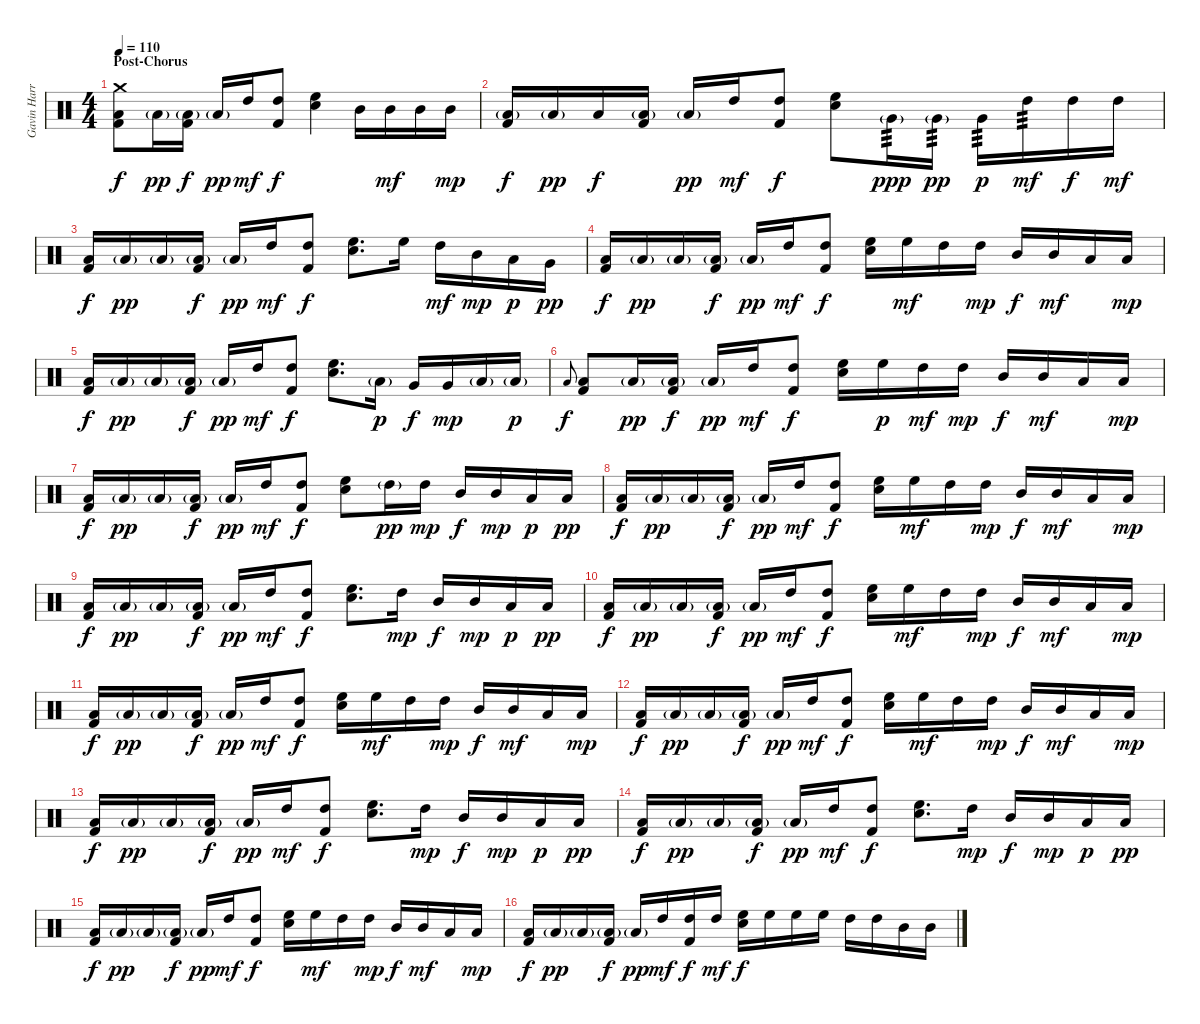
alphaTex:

\track ("Gavin Harrison - Drums" "Gavin Harr") {instrument percussion}
\staff {score}
\articulation defaults
\ts (4 4)
\section ("" "Post-Chorus")
\tempo 110
\clef neutral
\ks c
("Crash medium (hit)" "Low Floor Tom (hit)" "Kick (hit) 2").8{dy f} "Low Floor Tom (hit)"{g}.16{dy pp} ("Low Tom (hit)"{g} "Kick (hit) 2").16{dy f} "Low Tom (hit)"{g}.16{dy pp} "High Tom (hit)".16{dy mf} ("High Tom (hit)" "Kick (hit) 2").8{dy f} ("High Floor Tom (hit)" "Electric Snare (hit)").4 "Mid Tom (hit)".16 "Mid Tom (hit)".16{dy mf} "Mid Tom (hit)".16 "Mid Tom (hit)".16{dy mp} |
("Low Floor Tom (hit)"{g} "Kick (hit) 2").16{dy f} "Low Floor Tom (hit)"{g}.16{dy pp} "Low Floor Tom (hit)".16{dy f} ("Low Tom (hit)"{g} "Kick (hit) 2").16 "Low Tom (hit)"{g}.16{dy pp} "High Tom (hit)".16{dy mf} ("High Tom (hit)" "Kick (hit) 2").8{dy f} ("High Floor Tom (hit)" "Electric Snare (hit)").8 "Very Low Tom (hit)"{g}.16{tp 3 dy ppp} "Very Low Tom (hit)"{g}.16{tp 3 dy pp} "Very Low Tom (hit)".16{tp 3 dy p} "High Tom (hit)".16{tp 3 dy mf} "High Tom (hit)".16{dy f} "High Tom (hit)".16{dy mf} |
("Low Floor Tom (hit)" "Kick (hit) 2").16{dy f} "Low Floor Tom (hit)"{g}.16{dy pp} "Low Floor Tom (hit)"{g}.16 ("Low Tom (hit)"{g} "Kick (hit) 2").16{dy f} "Low Tom (hit)"{g}.16{dy pp} "High Tom (hit)".16{dy mf} ("High Tom (hit)" "Kick (hit) 2").8{dy f} ("High Floor Tom (hit)" "Electric Snare (hit)").8{d} "High Floor Tom (hit)".16 "High Tom (hit)".16{dy mf} "Mid Tom (hit)".16{dy mp} "Low Tom (hit)".16{dy p} "Very Low Tom (hit)".16{dy pp} |
("Low Floor Tom (hit)" "Kick (hit) 2").16{dy f} "Low Floor Tom (hit)"{g}.16{dy pp} "Low Floor Tom (hit)"{g}.16 ("Low Tom (hit)"{g} "Kick (hit) 2").16{dy f} "Low Tom (hit)"{g}.16{dy pp} "High Tom (hit)".16{dy mf} ("High Tom (hit)" "Kick (hit) 2").8{dy f} ("High Floor Tom (hit)" "Electric Snare (hit)").16 "High Floor Tom (hit)".16{dy mf} "High Tom (hit)".16 "High Tom (hit)".16{dy mp} "Mid Tom (hit)".16{dy f} "Mid Tom (hit)".16{dy mf} "Low Tom (hit)".16 "Low Tom (hit)".16{dy mp} |
("Low Floor Tom (hit)" "Kick (hit) 2").16{dy f} "Low Floor Tom (hit)"{g}.16{dy pp} "Low Floor Tom (hit)"{g}.16 ("Low Tom (hit)"{g} "Kick (hit) 2").16{dy f} "Low Tom (hit)"{g}.16{dy pp} "High Tom (hit)".16{dy mf} ("High Tom (hit)" "Kick (hit) 2").8{dy f} ("High Floor Tom (hit)" "Electric Snare (hit)").8{d} "Low Tom (hit)"{g}.16{dy p} "Very Low Tom (hit)".16{dy f} "Very Low Tom (hit)".16{dy mp} "Low Floor Tom (hit)"{g}.16 "Low Floor Tom (hit)"{g}.16{dy p} |
"Low Floor Tom (hit)".8{gr onbeat dy f} ("Low Floor Tom (hit)" "Kick (hit) 2").8 "Low Floor Tom (hit)"{g}.16{dy pp} ("Low Tom (hit)"{g} "Kick (hit) 2").16{dy f} "Low Tom (hit)"{g}.16{dy pp} "High Tom (hit)".16{dy mf} ("High Tom (hit)" "Kick (hit) 2").8{dy f} ("High Floor Tom (hit)" "Electric Snare (hit)").16 "High Floor Tom (hit)".16{dy p} "High Tom (hit)".16{dy mf} "High Tom (hit)".16{dy mp} "Mid Tom (hit)".16{dy f} "Mid Tom (hit)".16{dy mf} "Low Tom (hit)".16 "Low Tom (hit)".16{dy mp} |
("Low Floor Tom (hit)" "Kick (hit) 2").16{dy f} "Low Floor Tom (hit)"{g}.16{dy pp} "Low Floor Tom (hit)"{g}.16 ("Low Tom (hit)"{g} "Kick (hit) 2").16{dy f} "Low Tom (hit)"{g}.16{dy pp} "High Tom (hit)".16{dy mf} ("High Tom (hit)" "Kick (hit) 2").8{dy f} ("High Floor Tom (hit)" "Electric Snare (hit)").8 "High Tom (hit)"{g}.16{dy pp} "High Tom (hit)".16{dy mp} "Mid Tom (hit)".16{dy f} "Mid Tom (hit)".16{dy mp} "Low Tom (hit)".16{dy p} "Low Tom (hit)".16{dy pp} |
("Low Floor Tom (hit)" "Kick (hit) 2").16{dy f} "Low Floor Tom (hit)"{g}.16{dy pp} "Low Floor Tom (hit)"{g}.16 ("Low Tom (hit)"{g} "Kick (hit) 2").16{dy f} "Low Tom (hit)"{g}.16{dy pp} "High Tom (hit)".16{dy mf} ("High Tom (hit)" "Kick (hit) 2").8{dy f} ("High Floor Tom (hit)" "Electric Snare (hit)").16 "High Floor Tom (hit)".16{dy mf} "High Tom (hit)".16 "High Tom (hit)".16{dy mp} "Mid Tom (hit)".16{dy f} "Mid Tom (hit)".16{dy mf} "Low Tom (hit)".16 "Low Tom (hit)".16{dy mp} |
("Low Floor Tom (hit)" "Kick (hit) 2").16{dy f} "Low Floor Tom (hit)"{g}.16{dy pp} "Low Floor Tom (hit)"{g}.16 ("Low Tom (hit)"{g} "Kick (hit) 2").16{dy f} "Low Tom (hit)"{g}.16{dy pp} "High Tom (hit)".16{dy mf} ("High Tom (hit)" "Kick (hit) 2").8{dy f} ("High Floor Tom (hit)" "Electric Snare (hit)").8{d} "High Tom (hit)".16{dy mp} "Mid Tom (hit)".16{dy f} "Mid Tom (hit)".16{dy mp} "Low Tom (hit)".16{dy p} "Low Tom (hit)".16{dy pp} |
("Low Floor Tom (hit)" "Kick (hit) 2").16{dy f} "Low Floor Tom (hit)"{g}.16{dy pp} "Low Floor Tom (hit)"{g}.16 ("Low Tom (hit)"{g} "Kick (hit) 2").16{dy f} "Low Tom (hit)"{g}.16{dy pp} "High Tom (hit)".16{dy mf} ("High Tom (hit)" "Kick (hit) 2").8{dy f} ("High Floor Tom (hit)" "Electric Snare (hit)").16 "High Floor Tom (hit)".16{dy mf} "High Tom (hit)".16 "High Tom (hit)".16{dy mp} "Mid Tom (hit)".16{dy f} "Mid Tom (hit)".16{dy mf} "Low Tom (hit)".16 "Low Tom (hit)".16{dy mp} |
("Low Floor Tom (hit)" "Kick (hit) 2").16{dy f} "Low Floor Tom (hit)"{g}.16{dy pp} "Low Floor Tom (hit)"{g}.16 ("Low Tom (hit)"{g} "Kick (hit) 2").16{dy f} "Low Tom (hit)"{g}.16{dy pp} "High Tom (hit)".16{dy mf} ("High Tom (hit)" "Kick (hit) 2").8{dy f} ("High Floor Tom (hit)" "Electric Snare (hit)").16 "High Floor Tom (hit)".16{dy mf} "High Tom (hit)".16 "High Tom (hit)".16{dy mp} "Mid Tom (hit)".16{dy f} "Mid Tom (hit)".16{dy mf} "Low Tom (hit)".16 "Low Tom (hit)".16{dy mp} |
("Low Floor Tom (hit)" "Kick (hit) 2").16{dy f} "Low Floor Tom (hit)"{g}.16{dy pp} "Low Floor Tom (hit)"{g}.16 ("Low Tom (hit)"{g} "Kick (hit) 2").16{dy f} "Low Tom (hit)"{g}.16{dy pp} "High Tom (hit)".16{dy mf} ("High Tom (hit)" "Kick (hit) 2").8{dy f} ("High Floor Tom (hit)" "Electric Snare (hit)").16 "High Floor Tom (hit)".16{dy mf} "High Tom (hit)".16 "High Tom (hit)".16{dy mp} "Mid Tom (hit)".16{dy f} "Mid Tom (hit)".16{dy mf} "Low Tom (hit)".16 "Low Tom (hit)".16{dy mp} |
("Low Floor Tom (hit)" "Kick (hit) 2").16{dy f} "Low Floor Tom (hit)"{g}.16{dy pp} "Low Floor Tom (hit)"{g}.16 ("Low Tom (hit)"{g} "Kick (hit) 2").16{dy f} "Low Tom (hit)"{g}.16{dy pp} "High Tom (hit)".16{dy mf} ("High Tom (hit)" "Kick (hit) 2").8{dy f} ("High Floor Tom (hit)" "Electric Snare (hit)").8{d} "High Tom (hit)".16{dy mp} "Mid Tom (hit)".16{dy f} "Mid Tom (hit)".16{dy mp} "Low Tom (hit)".16{dy p} "Low Tom (hit)".16{dy pp} |
("Low Floor Tom (hit)" "Kick (hit) 2").16{dy f} "Low Floor Tom (hit)"{g}.16{dy pp} "Low Floor Tom (hit)"{g}.16 ("Low Tom (hit)"{g} "Kick (hit) 2").16{dy f} "Low Tom (hit)"{g}.16{dy pp} "High Tom (hit)".16{dy mf} ("High Tom (hit)" "Kick (hit) 2").8{dy f} ("High Floor Tom (hit)" "Electric Snare (hit)").8{d} "High Tom (hit)".16{dy mp} "Mid Tom (hit)".16{dy f} "Mid Tom (hit)".16{dy mp} "Low Tom (hit)".16{dy p} "Low Tom (hit)".16{dy pp} |
("Low Floor Tom (hit)" "Kick (hit) 2").16{dy f} "Low Floor Tom (hit)"{g}.16{dy pp} "Low Floor Tom (hit)"{g}.16 ("Low Tom (hit)"{g} "Kick (hit) 2").16{dy f} "Low Tom (hit)"{g}.16{dy pp} "High Tom (hit)".16{dy mf} ("High Tom (hit)" "Kick (hit) 2").8{dy f} ("High Floor Tom (hit)" "Electric Snare (hit)").16 "High Floor Tom (hit)".16{dy mf} "High Tom (hit)".16 "High Tom (hit)".16{dy mp} "Mid Tom (hit)".16{dy f} "Mid Tom (hit)".16{dy mf} "Low Tom (hit)".16 "Low Tom (hit)".16{dy mp} |
("Low Floor Tom (hit)" "Kick (hit) 2").16{dy f} "Low Floor Tom (hit)"{g}.16{dy pp} "Low Floor Tom (hit)"{g}.16 ("Low Tom (hit)"{g} "Kick (hit) 2").16{dy f} "Low Tom (hit)"{g}.16{dy pp} "High Tom (hit)".16{dy mf} ("High Tom (hit)" "Kick (hit) 2").16{dy f} "High Tom (hit)".16{dy mf} ("High Floor Tom (hit)" "Electric Snare (hit)").16{dy f} "High Floor Tom (hit)".16 "High Floor Tom (hit)".16 "High Floor Tom (hit)".16 "High Tom (hit)".16 "High Tom (hit)".16 "Mid Tom (hit)".16 "Mid Tom (hit)".16
